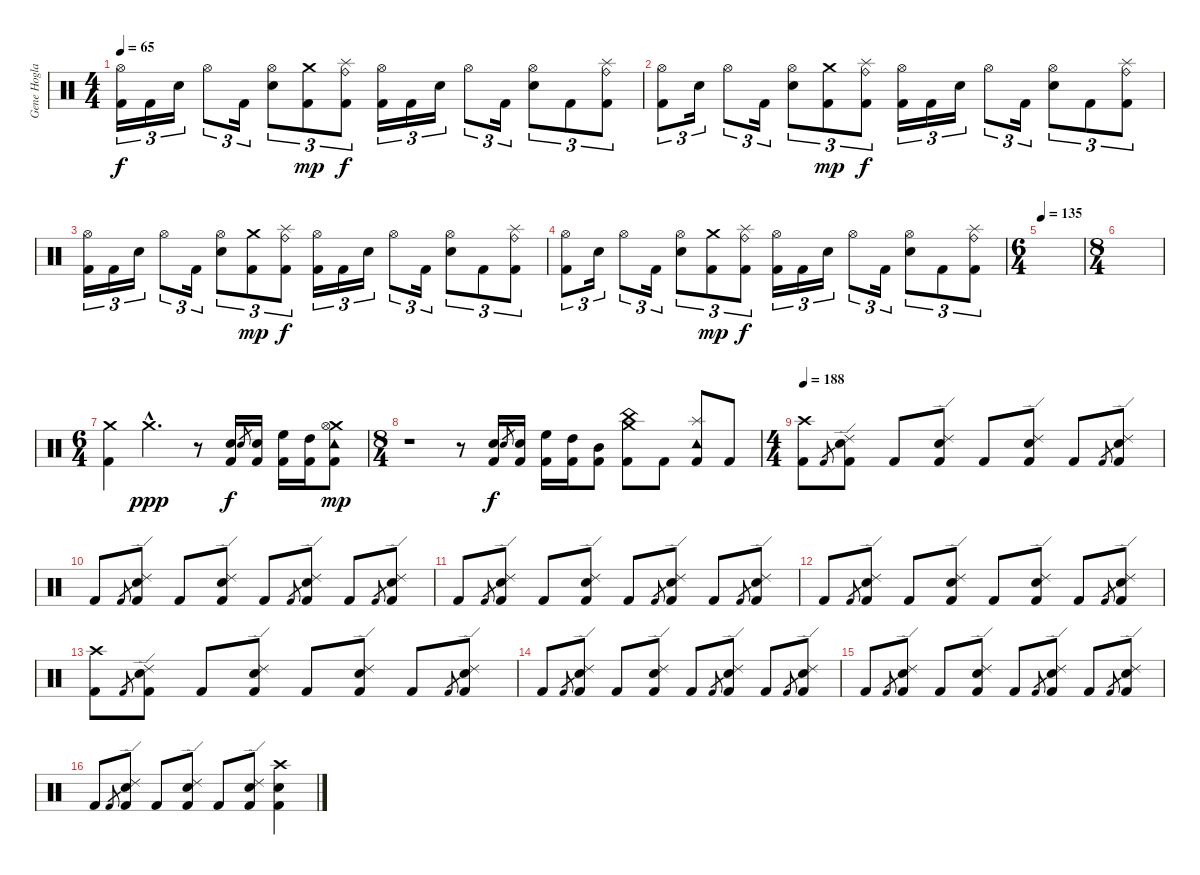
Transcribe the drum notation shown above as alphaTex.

\track ("Gene Hoglan" "Gene Hogla") {instrument percussion}
\staff {score}
\articulation defaults
\ts (4 4)
\tempo 65
\clef neutral
\ks c
("Kick (hit) 2" "Hi-Hat (open)").16{tu (3 2) dy f} "Kick (hit) 2".16{tu (3 2)} "Electric Snare (hit)".16{tu (3 2)} "Hi-Hat (open)".8{tu (3 2)} "Kick (hit) 2".16{tu (3 2)} ("Electric Snare (hit)" "Hi-Hat (open)").8{tu (3 2)} ("Kick (hit) 2" "Crash medium (hit)").8{tu (3 2) dy mp} ("Kick (hit) 2" "Ride (bell)" "Splash (hit)").8{tu (3 2) dy f} ("Kick (hit) 2" "Hi-Hat (open)").16{tu (3 2)} "Kick (hit) 2".16{tu (3 2)} "Electric Snare (hit)".16{tu (3 2)} "Hi-Hat (open)".8{tu (3 2)} "Kick (hit) 2".16{tu (3 2)} ("Electric Snare (hit)" "Hi-Hat (open)").8{tu (3 2)} "Kick (hit) 2".8{tu (3 2)} ("Kick (hit) 2" "Ride (bell)" "Splash (hit)").8{tu (3 2)} |
("Kick (hit) 2" "Hi-Hat (open)").8{tu (3 2)} "Electric Snare (hit)".16{tu (3 2)} "Hi-Hat (open)".8{tu (3 2)} "Kick (hit) 2".16{tu (3 2)} ("Electric Snare (hit)" "Hi-Hat (open)").8{tu (3 2)} ("Kick (hit) 2" "Crash medium (hit)").8{tu (3 2) dy mp} ("Kick (hit) 2" "Ride (bell)" "Splash (hit)").8{tu (3 2) dy f} ("Kick (hit) 2" "Hi-Hat (open)").16{tu (3 2)} "Kick (hit) 2".16{tu (3 2)} "Electric Snare (hit)".16{tu (3 2)} "Hi-Hat (open)".8{tu (3 2)} "Kick (hit) 2".16{tu (3 2)} ("Electric Snare (hit)" "Hi-Hat (open)").8{tu (3 2)} "Kick (hit) 2".8{tu (3 2)} ("Kick (hit) 2" "Ride (bell)" "Splash (hit)").8{tu (3 2)} |
("Kick (hit) 2" "Hi-Hat (open)").16{tu (3 2)} "Kick (hit) 2".16{tu (3 2)} "Electric Snare (hit)".16{tu (3 2)} "Hi-Hat (open)".8{tu (3 2)} "Kick (hit) 2".16{tu (3 2)} ("Electric Snare (hit)" "Hi-Hat (open)").8{tu (3 2)} ("Kick (hit) 2" "Crash medium (hit)").8{tu (3 2) dy mp} ("Kick (hit) 2" "Ride (bell)" "Splash (hit)").8{tu (3 2) dy f} ("Kick (hit) 2" "Hi-Hat (open)").16{tu (3 2)} "Kick (hit) 2".16{tu (3 2)} "Electric Snare (hit)".16{tu (3 2)} "Hi-Hat (open)".8{tu (3 2)} "Kick (hit) 2".16{tu (3 2)} ("Electric Snare (hit)" "Hi-Hat (open)").8{tu (3 2)} "Kick (hit) 2".8{tu (3 2)} ("Kick (hit) 2" "Ride (bell)" "Splash (hit)").8{tu (3 2)} |
("Kick (hit) 2" "Hi-Hat (open)").8{tu (3 2)} "Electric Snare (hit)".16{tu (3 2)} "Hi-Hat (open)".8{tu (3 2)} "Kick (hit) 2".16{tu (3 2)} ("Electric Snare (hit)" "Hi-Hat (open)").8{tu (3 2)} ("Kick (hit) 2" "Crash medium (hit)").8{tu (3 2) dy mp} ("Kick (hit) 2" "Ride (bell)" "Splash (hit)").8{tu (3 2) dy f} ("Kick (hit) 2" "Hi-Hat (open)").16{tu (3 2)} "Kick (hit) 2".16{tu (3 2)} "Electric Snare (hit)".16{tu (3 2)} "Hi-Hat (open)".8{tu (3 2)} "Kick (hit) 2".16{tu (3 2)} ("Electric Snare (hit)" "Hi-Hat (open)").8{tu (3 2)} "Kick (hit) 2".8{tu (3 2)} ("Kick (hit) 2" "Ride (bell)" "Splash (hit)").8{tu (3 2)} |
\ts (6 4)
\tempo 135
|
\ts (8 4)
|
\ts (6 4)
("Kick (hit) 2" "Crash medium (hit)").4 "Crash medium (hit)"{hac}.2{d dy ppp} r.8 ("Kick (hit) 2" "Electric Snare (hit)").16{dy f} "Electric Snare (hit)".8{gr} ("Kick (hit) 2" "Electric Snare (hit)").16 ("Kick (hit) 2" "High Floor Tom (hit)").16 ("Kick (hit) 2" "High Tom (hit)").16 ("Kick (hit) 2" "Crash medium (hit)" "Hi-Hat (open)" "Tambourine (hit)").8{dy mp} |
\ts (8 4)
r.1 r.8 ("Kick (hit) 2" "Electric Snare (hit)").16{dy f} "Electric Snare (hit)".8{gr} ("Kick (hit) 2" "Electric Snare (hit)").16 ("Kick (hit) 2" "High Floor Tom (hit)").16 ("Kick (hit) 2" "High Tom (hit)").16 ("Kick (hit) 2" "Mid Tom (hit)").8 ("Kick (hit) 2" "China (hit)" "Crash medium (hit)").8 "Kick (hit) 2".8 ("Kick (hit) 2" "Splash (hit)" "Tambourine (hit)").8 "Kick (hit) 2".8 |
\ts (4 4)
\tempo 188
("Kick (hit) 2" "Crash high (hit)").8 "Kick (hit) 2".8{gr} ("Kick (hit) 2" "Electric Snare (hit)" "Ride (edge) 2").8 "Kick (hit) 2".8 ("Kick (hit) 2" "Electric Snare (hit)" "Ride (edge) 2").8 "Kick (hit) 2".8 ("Kick (hit) 2" "Electric Snare (hit)" "Ride (edge) 2").8 "Kick (hit) 2".8 "Kick (hit) 2".8{gr} ("Kick (hit) 2" "Electric Snare (hit)" "Ride (edge) 2").8 |
"Kick (hit) 2".8 "Kick (hit) 2".8{gr} ("Kick (hit) 2" "Electric Snare (hit)" "Ride (edge) 2").8 "Kick (hit) 2".8 ("Kick (hit) 2" "Electric Snare (hit)" "Ride (edge) 2").8 "Kick (hit) 2".8 "Kick (hit) 2".8{gr} ("Kick (hit) 2" "Electric Snare (hit)" "Ride (edge) 2").8 "Kick (hit) 2".8 "Kick (hit) 2".8{gr} ("Kick (hit) 2" "Electric Snare (hit)" "Ride (edge) 2").8 |
"Kick (hit) 2".8 "Kick (hit) 2".8{gr} ("Kick (hit) 2" "Electric Snare (hit)" "Ride (edge) 2").8 "Kick (hit) 2".8 ("Kick (hit) 2" "Electric Snare (hit)" "Ride (edge) 2").8 "Kick (hit) 2".8 "Kick (hit) 2".8{gr} ("Kick (hit) 2" "Electric Snare (hit)" "Ride (edge) 2").8 "Kick (hit) 2".8 "Kick (hit) 2".8{gr} ("Kick (hit) 2" "Electric Snare (hit)" "Ride (edge) 2").8 |
"Kick (hit) 2".8 "Kick (hit) 2".8{gr} ("Kick (hit) 2" "Electric Snare (hit)" "Ride (edge) 2").8 "Kick (hit) 2".8 ("Kick (hit) 2" "Electric Snare (hit)" "Ride (edge) 2").8 "Kick (hit) 2".8 ("Kick (hit) 2" "Electric Snare (hit)" "Ride (edge) 2").8 "Kick (hit) 2".8 "Kick (hit) 2".8{gr} ("Kick (hit) 2" "Electric Snare (hit)" "Ride (edge) 2").8 |
("Kick (hit) 2" "Crash high (hit)").8 "Kick (hit) 2".8{gr} ("Kick (hit) 2" "Electric Snare (hit)" "Ride (edge) 2").8 "Kick (hit) 2".8 ("Kick (hit) 2" "Electric Snare (hit)" "Ride (edge) 2").8 "Kick (hit) 2".8 ("Kick (hit) 2" "Electric Snare (hit)" "Ride (edge) 2").8 "Kick (hit) 2".8 "Kick (hit) 2".8{gr} ("Kick (hit) 2" "Electric Snare (hit)" "Ride (edge) 2").8 |
"Kick (hit) 2".8 "Kick (hit) 2".8{gr} ("Kick (hit) 2" "Electric Snare (hit)" "Ride (edge) 2").8 "Kick (hit) 2".8 ("Kick (hit) 2" "Electric Snare (hit)" "Ride (edge) 2").8 "Kick (hit) 2".8 "Kick (hit) 2".8{gr} ("Kick (hit) 2" "Electric Snare (hit)" "Ride (edge) 2").8 "Kick (hit) 2".8 "Kick (hit) 2".8{gr} ("Kick (hit) 2" "Electric Snare (hit)" "Ride (edge) 2").8 |
"Kick (hit) 2".8 "Kick (hit) 2".8{gr} ("Kick (hit) 2" "Electric Snare (hit)" "Ride (edge) 2").8 "Kick (hit) 2".8 ("Kick (hit) 2" "Electric Snare (hit)" "Ride (edge) 2").8 "Kick (hit) 2".8 "Kick (hit) 2".8{gr} ("Kick (hit) 2" "Electric Snare (hit)" "Ride (edge) 2").8 "Kick (hit) 2".8 "Kick (hit) 2".8{gr} ("Kick (hit) 2" "Electric Snare (hit)" "Ride (edge) 2").8 |
"Kick (hit) 2".8 "Kick (hit) 2".8{gr} ("Kick (hit) 2" "Electric Snare (hit)" "Ride (edge) 2").8 "Kick (hit) 2".8 ("Kick (hit) 2" "Electric Snare (hit)" "Ride (edge) 2").8 "Kick (hit) 2".8 ("Kick (hit) 2" "Electric Snare (hit)" "Ride (edge) 2").8 ("Kick (hit) 2" "Electric Snare (hit)" "Crash high (hit)").4
